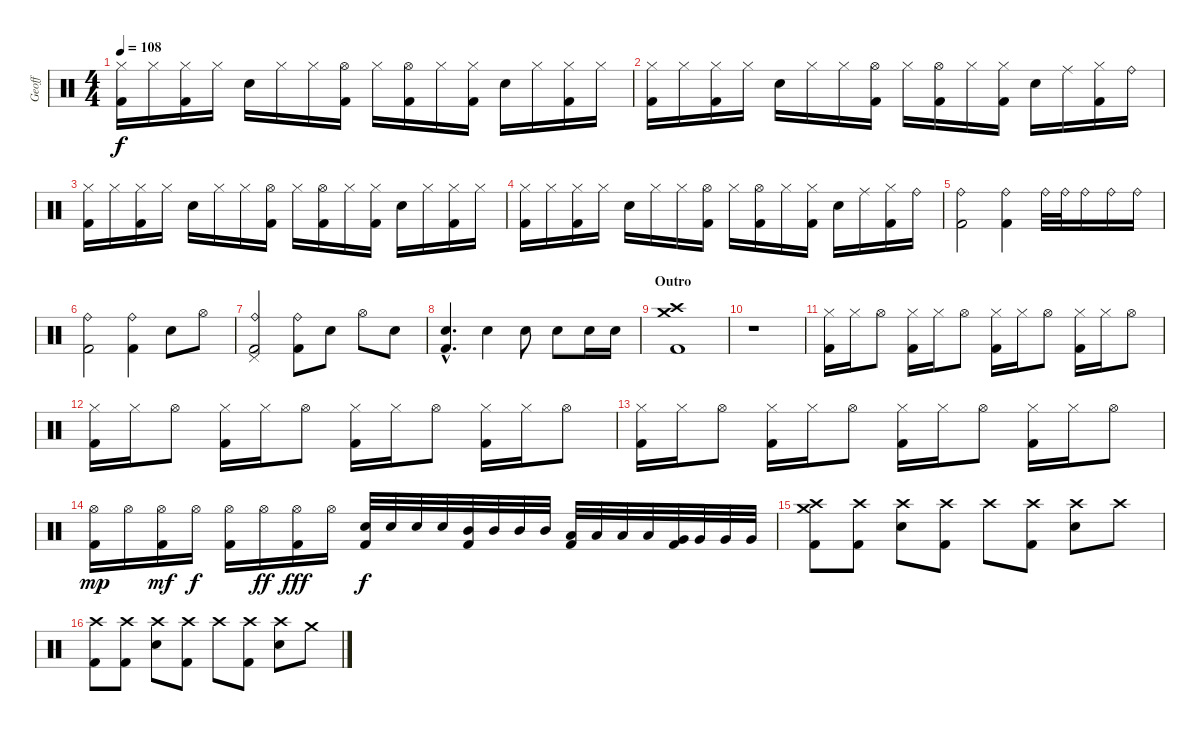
\track ("Geoff" "Geoff") {instrument percussion}
\staff {score}
\articulation defaults
\ts (4 4)
\tempo 108
\clef neutral
\ks c
("Hi-Hat (closed)" "Kick (hit) 2").16{dy f} "Hi-Hat (closed)".16 ("Hi-Hat (closed)" "Kick (hit) 2").16 "Hi-Hat (closed)".16 "Electric Snare (hit)".16 "Hi-Hat (closed)".16 "Hi-Hat (closed)".16 ("Hi-Hat (open)" "Kick (hit) 2").16 "Hi-Hat (closed)".16 ("Hi-Hat (open)" "Kick (hit) 2").16 "Hi-Hat (closed)".16 ("Hi-Hat (closed)" "Kick (hit) 2").16 "Electric Snare (hit)".16 "Hi-Hat (closed)".16 ("Hi-Hat (closed)" "Kick (hit) 2").16 "Hi-Hat (closed)".16 |
("Hi-Hat (closed)" "Kick (hit) 2").16 "Hi-Hat (closed)".16 ("Hi-Hat (closed)" "Kick (hit) 2").16 "Hi-Hat (closed)".16 "Electric Snare (hit)".16 "Hi-Hat (closed)".16 "Hi-Hat (closed)".16 ("Hi-Hat (open)" "Kick (hit) 2").16 "Hi-Hat (closed)".16 ("Hi-Hat (open)" "Kick (hit) 2").16 "Hi-Hat (closed)".16 ("Hi-Hat (closed)" "Kick (hit) 2").16 "Electric Snare (hit)".16 "Ride (middle)".16 ("Hi-Hat (closed)" "Kick (hit) 2").16 "Ride (bell)".16 |
("Hi-Hat (closed)" "Kick (hit) 2").16 "Hi-Hat (closed)".16 ("Hi-Hat (closed)" "Kick (hit) 2").16 "Hi-Hat (closed)".16 "Electric Snare (hit)".16 "Hi-Hat (closed)".16 "Hi-Hat (closed)".16 ("Hi-Hat (open)" "Kick (hit) 2").16 "Hi-Hat (closed)".16 ("Hi-Hat (open)" "Kick (hit) 2").16 "Hi-Hat (closed)".16 ("Hi-Hat (closed)" "Kick (hit) 2").16 "Electric Snare (hit)".16 "Hi-Hat (closed)".16 ("Hi-Hat (closed)" "Kick (hit) 2").16 "Hi-Hat (closed)".16 |
("Hi-Hat (closed)" "Kick (hit) 2").16 "Hi-Hat (closed)".16 ("Hi-Hat (closed)" "Kick (hit) 2").16 "Hi-Hat (closed)".16 "Electric Snare (hit)".16 "Hi-Hat (closed)".16 "Hi-Hat (closed)".16 ("Hi-Hat (open)" "Kick (hit) 2").16 "Hi-Hat (closed)".16 ("Hi-Hat (open)" "Kick (hit) 2").16 "Hi-Hat (closed)".16 ("Hi-Hat (closed)" "Kick (hit) 2").16 "Electric Snare (hit)".16 "Ride (middle)".16 ("Hi-Hat (closed)" "Kick (hit) 2").16 "Ride (bell)".16 |
("Ride (bell)" "Kick (hit) 2").2 ("Ride (bell)" "Kick (hit) 2").4 "Ride (bell)".32 "Ride (bell)".32 "Ride (bell)".16 "Ride (bell)".16 "Ride (bell)".16 |
("Ride (bell)" "Kick (hit) 2").2 ("Ride (bell)" "Kick (hit) 2").4 "Electric Snare (hit)".8 "Hi-Hat (open)".8 |
("Ride (bell)" "Pedal Hi-Hat (hit)" "Kick (hit) 2").2 ("Ride (bell)" "Kick (hit) 2").8 "Electric Snare (hit)".8 "Hi-Hat (open)".8 "Electric Snare (hit)".8 |
("Electric Snare (hit)"{hac} "Kick (hit) 2"{hac}).4{d} "Electric Snare (hit)".4 "Electric Snare (hit)".8 "Electric Snare (hit)".8 "Electric Snare (hit)".16 "Electric Snare (hit)".16 |
\section ("" "Outro")
("Crash high (hit)" "Crash medium (hit)" "Kick (hit) 2").1 |
r.1 |
("Hi-Hat (closed)" "Kick (hit) 2").16 "Hi-Hat (closed)".16 "Hi-Hat (open)".8 ("Hi-Hat (closed)" "Kick (hit) 2").16 "Hi-Hat (closed)".16 "Hi-Hat (open)".8 ("Hi-Hat (closed)" "Kick (hit) 2").16 "Hi-Hat (closed)".16 "Hi-Hat (open)".8 ("Hi-Hat (closed)" "Kick (hit) 2").16 "Hi-Hat (closed)".16 "Hi-Hat (open)".8 |
("Hi-Hat (closed)" "Kick (hit) 2").16 "Hi-Hat (closed)".16 "Hi-Hat (open)".8 ("Hi-Hat (closed)" "Kick (hit) 2").16 "Hi-Hat (closed)".16 "Hi-Hat (open)".8 ("Hi-Hat (closed)" "Kick (hit) 2").16 "Hi-Hat (closed)".16 "Hi-Hat (open)".8 ("Hi-Hat (closed)" "Kick (hit) 2").16 "Hi-Hat (closed)".16 "Hi-Hat (open)".8 |
("Hi-Hat (closed)" "Kick (hit) 2").16 "Hi-Hat (closed)".16 "Hi-Hat (open)".8 ("Hi-Hat (closed)" "Kick (hit) 2").16 "Hi-Hat (closed)".16 "Hi-Hat (open)".8 ("Hi-Hat (closed)" "Kick (hit) 2").16 "Hi-Hat (closed)".16 "Hi-Hat (open)".8 ("Hi-Hat (closed)" "Kick (hit) 2").16 "Hi-Hat (closed)".16 "Hi-Hat (open)".8 |
("Hi-Hat (open)" "Kick (hit) 2").16{dy mp} "Hi-Hat (open)".16 ("Hi-Hat (open)" "Kick (hit) 2").16{dy mf} "Hi-Hat (open)".16{dy f} ("Hi-Hat (open)" "Kick (hit) 2").16 "Hi-Hat (open)".16{dy ff} ("Hi-Hat (open)" "Kick (hit) 2").16{dy fff} "Hi-Hat (open)".16 ("Electric Snare (hit)" "Kick (hit) 2").32{dy f} "Electric Snare (hit)".32 "Electric Snare (hit)".32 "Electric Snare (hit)".32 ("Mid Tom (hit)" "Kick (hit) 2").32 "Mid Tom (hit)".32 "Mid Tom (hit)".32 "Mid Tom (hit)".32 ("Low Tom (hit)" "Kick (hit) 2").32 "Low Tom (hit)".32 "Low Tom (hit)".32 "Low Tom (hit)".32 ("Very Low Tom (hit)" "Kick (hit) 2").32 "Very Low Tom (hit)".32 "Very Low Tom (hit)".32 "Very Low Tom (hit)".32 |
("Crash high (hit)" "Crash medium (hit)" "Kick (hit) 2").8 ("Crash high (hit)" "Kick (hit) 2").8 ("Crash high (hit)" "Electric Snare (hit)").8 ("Crash high (hit)" "Kick (hit) 2").8 "Crash high (hit)".8 ("Crash high (hit)" "Kick (hit) 2").8 ("Crash high (hit)" "Electric Snare (hit)").8 "Crash high (hit)".8 |
("Crash high (hit)" "Kick (hit) 2").8 ("Crash high (hit)" "Kick (hit) 2").8 ("Crash high (hit)" "Electric Snare (hit)").8 ("Crash high (hit)" "Kick (hit) 2").8 "Crash high (hit)".8 ("Crash high (hit)" "Kick (hit) 2").8 ("Crash high (hit)" "Electric Snare (hit)").8 "Crash medium (hit)".8
